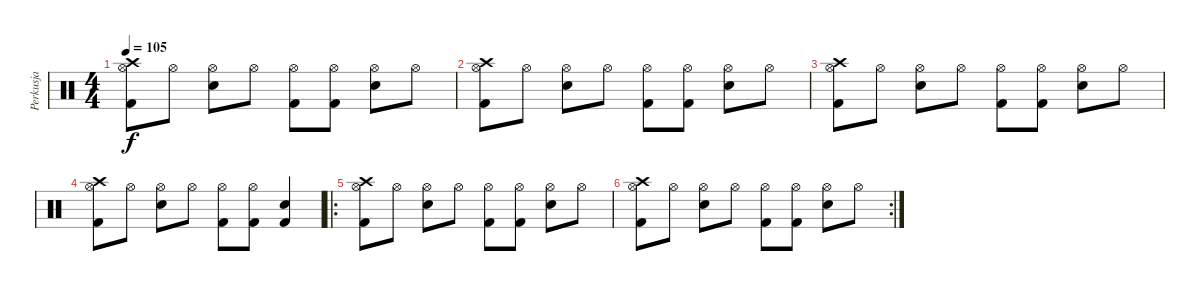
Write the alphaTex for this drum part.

\track ("Perkusja" "Perkusja") {instrument percussion}
\staff {score}
\articulation defaults
\ts (4 4)
\tempo 105
\clef neutral
\ks c
("Crash high (hit)" "Kick (hit) 2" "Hi-Hat (open)").8{dy f} "Hi-Hat (open)".8 ("Snare (hit) 2" "Hi-Hat (open)").8 "Hi-Hat (open)".8 ("Kick (hit) 2" "Hi-Hat (open)").8 ("Kick (hit) 2" "Hi-Hat (open)").8 ("Snare (hit) 2" "Hi-Hat (open)").8 "Hi-Hat (open)".8 |
("Crash high (hit)" "Kick (hit) 2" "Hi-Hat (open)").8 "Hi-Hat (open)".8 ("Snare (hit) 2" "Hi-Hat (open)").8 "Hi-Hat (open)".8 ("Kick (hit) 2" "Hi-Hat (open)").8 ("Kick (hit) 2" "Hi-Hat (open)").8 ("Snare (hit) 2" "Hi-Hat (open)").8 "Hi-Hat (open)".8 |
("Crash high (hit)" "Kick (hit) 2" "Hi-Hat (open)").8 "Hi-Hat (open)".8 ("Snare (hit) 2" "Hi-Hat (open)").8 "Hi-Hat (open)".8 ("Kick (hit) 2" "Hi-Hat (open)").8 ("Kick (hit) 2" "Hi-Hat (open)").8 ("Snare (hit) 2" "Hi-Hat (open)").8 "Hi-Hat (open)".8 |
("Crash high (hit)" "Kick (hit) 2" "Hi-Hat (open)").8 "Hi-Hat (open)".8 ("Snare (hit) 2" "Hi-Hat (open)").8 "Hi-Hat (open)".8 ("Kick (hit) 2" "Hi-Hat (open)").8 ("Kick (hit) 2" "Hi-Hat (open)").8 ("Kick (hit) 2" "Snare (hit) 2").4 |
\ro
("Crash high (hit)" "Kick (hit) 2" "Hi-Hat (open)").8 "Hi-Hat (open)".8 ("Snare (hit) 2" "Hi-Hat (open)").8 "Hi-Hat (open)".8 ("Kick (hit) 2" "Hi-Hat (open)").8 ("Kick (hit) 2" "Hi-Hat (open)").8 ("Snare (hit) 2" "Hi-Hat (open)").8 "Hi-Hat (open)".8 |
\rc 2
("Crash high (hit)" "Kick (hit) 2" "Hi-Hat (open)").8 "Hi-Hat (open)".8 ("Snare (hit) 2" "Hi-Hat (open)").8 "Hi-Hat (open)".8 ("Kick (hit) 2" "Hi-Hat (open)").8 ("Kick (hit) 2" "Hi-Hat (open)").8 ("Snare (hit) 2" "Hi-Hat (open)").8 "Hi-Hat (open)".8
